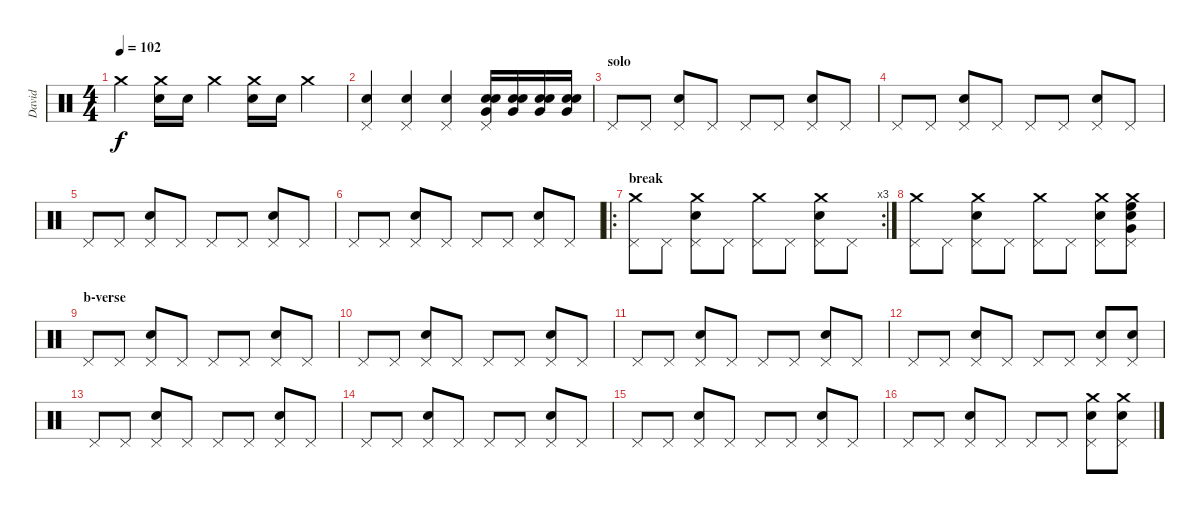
\track ("David" "David") {instrument percussion}
\staff {score}
\articulation defaults
\ts (4 4)
\tempo 102
\clef neutral
\ks c "Crash medium (hit)".4{dy f}
("Crash medium (hit)" "Snare (hit) 2").16 "Snare (hit) 2".16 "Crash medium (hit)".4 ("Crash medium (hit)" "Snare (hit) 2").16 "Snare (hit) 2".16 "Crash medium (hit)".4 |
("Pedal Hi-Hat (hit)" "Snare (hit) 2").4 ("Pedal Hi-Hat (hit)" "Snare (hit) 2").4 ("Pedal Hi-Hat (hit)" "Snare (hit) 2").4 ("Pedal Hi-Hat (hit)" "Electric Snare (hit)" "Very Low Tom (hit)" "Snare (hit) 2").16 ("Electric Snare (hit)" "Very Low Tom (hit)" "Snare (hit) 2").16 ("Electric Snare (hit)" "Very Low Tom (hit)" "Snare (hit) 2").16 ("Electric Snare (hit)" "Very Low Tom (hit)" "Snare (hit) 2").16 |
\section ("" "solo")
"Pedal Hi-Hat (hit)".8 "Pedal Hi-Hat (hit)".8 ("Pedal Hi-Hat (hit)" "Snare (hit) 2").8 "Pedal Hi-Hat (hit)".8 "Pedal Hi-Hat (hit)".8 "Pedal Hi-Hat (hit)".8 ("Pedal Hi-Hat (hit)" "Snare (hit) 2").8 "Pedal Hi-Hat (hit)".8 |
"Pedal Hi-Hat (hit)".8 "Pedal Hi-Hat (hit)".8 ("Pedal Hi-Hat (hit)" "Snare (hit) 2").8 "Pedal Hi-Hat (hit)".8 "Pedal Hi-Hat (hit)".8 "Pedal Hi-Hat (hit)".8 ("Pedal Hi-Hat (hit)" "Snare (hit) 2").8 "Pedal Hi-Hat (hit)".8 |
"Pedal Hi-Hat (hit)".8 "Pedal Hi-Hat (hit)".8 ("Pedal Hi-Hat (hit)" "Snare (hit) 2").8 "Pedal Hi-Hat (hit)".8 "Pedal Hi-Hat (hit)".8 "Pedal Hi-Hat (hit)".8 ("Pedal Hi-Hat (hit)" "Snare (hit) 2").8 "Pedal Hi-Hat (hit)".8 |
"Pedal Hi-Hat (hit)".8 "Pedal Hi-Hat (hit)".8 ("Pedal Hi-Hat (hit)" "Snare (hit) 2").8 "Pedal Hi-Hat (hit)".8 "Pedal Hi-Hat (hit)".8 "Pedal Hi-Hat (hit)".8 ("Pedal Hi-Hat (hit)" "Snare (hit) 2").8 "Pedal Hi-Hat (hit)".8 |
\ro
\rc 3
\section ("" "break")
("Pedal Hi-Hat (hit)" "Crash medium (hit)").8 "Pedal Hi-Hat (hit)".8 ("Pedal Hi-Hat (hit)" "Crash medium (hit)" "Snare (hit) 2").8 "Pedal Hi-Hat (hit)".8 ("Pedal Hi-Hat (hit)" "Crash medium (hit)").8 "Pedal Hi-Hat (hit)".8 ("Pedal Hi-Hat (hit)" "Crash medium (hit)" "Snare (hit) 2").8 "Pedal Hi-Hat (hit)".8 |
("Pedal Hi-Hat (hit)" "Crash medium (hit)").8 "Pedal Hi-Hat (hit)".8 ("Pedal Hi-Hat (hit)" "Crash medium (hit)" "Snare (hit) 2").8 "Pedal Hi-Hat (hit)".8 ("Pedal Hi-Hat (hit)" "Crash medium (hit)").8 "Pedal Hi-Hat (hit)".8 ("Pedal Hi-Hat (hit)" "Crash medium (hit)" "Snare (hit) 2").8 ("Pedal Hi-Hat (hit)" "Crash medium (hit)" "High Floor Tom (hit)" "Very Low Tom (hit)" "Snare (hit) 2").8 |
\section ("" "b-verse")
"Pedal Hi-Hat (hit)".8 "Pedal Hi-Hat (hit)".8 ("Pedal Hi-Hat (hit)" "Snare (hit) 2").8 "Pedal Hi-Hat (hit)".8 "Pedal Hi-Hat (hit)".8 "Pedal Hi-Hat (hit)".8 ("Pedal Hi-Hat (hit)" "Snare (hit) 2").8 "Pedal Hi-Hat (hit)".8 |
"Pedal Hi-Hat (hit)".8 "Pedal Hi-Hat (hit)".8 ("Pedal Hi-Hat (hit)" "Snare (hit) 2").8 "Pedal Hi-Hat (hit)".8 "Pedal Hi-Hat (hit)".8 "Pedal Hi-Hat (hit)".8 ("Pedal Hi-Hat (hit)" "Snare (hit) 2").8 "Pedal Hi-Hat (hit)".8 |
"Pedal Hi-Hat (hit)".8 "Pedal Hi-Hat (hit)".8 ("Pedal Hi-Hat (hit)" "Snare (hit) 2").8 "Pedal Hi-Hat (hit)".8 "Pedal Hi-Hat (hit)".8 "Pedal Hi-Hat (hit)".8 ("Pedal Hi-Hat (hit)" "Snare (hit) 2").8 "Pedal Hi-Hat (hit)".8 |
"Pedal Hi-Hat (hit)".8 "Pedal Hi-Hat (hit)".8 ("Pedal Hi-Hat (hit)" "Snare (hit) 2").8 "Pedal Hi-Hat (hit)".8 "Pedal Hi-Hat (hit)".8 "Pedal Hi-Hat (hit)".8 ("Pedal Hi-Hat (hit)" "Snare (hit) 2").8 ("Pedal Hi-Hat (hit)" "Snare (hit) 2").8 |
"Pedal Hi-Hat (hit)".8 "Pedal Hi-Hat (hit)".8 ("Pedal Hi-Hat (hit)" "Snare (hit) 2").8 "Pedal Hi-Hat (hit)".8 "Pedal Hi-Hat (hit)".8 "Pedal Hi-Hat (hit)".8 ("Pedal Hi-Hat (hit)" "Snare (hit) 2").8 "Pedal Hi-Hat (hit)".8 |
"Pedal Hi-Hat (hit)".8 "Pedal Hi-Hat (hit)".8 ("Pedal Hi-Hat (hit)" "Snare (hit) 2").8 "Pedal Hi-Hat (hit)".8 "Pedal Hi-Hat (hit)".8 "Pedal Hi-Hat (hit)".8 ("Pedal Hi-Hat (hit)" "Snare (hit) 2").8 "Pedal Hi-Hat (hit)".8 |
"Pedal Hi-Hat (hit)".8 "Pedal Hi-Hat (hit)".8 ("Pedal Hi-Hat (hit)" "Snare (hit) 2").8 "Pedal Hi-Hat (hit)".8 "Pedal Hi-Hat (hit)".8 "Pedal Hi-Hat (hit)".8 ("Pedal Hi-Hat (hit)" "Snare (hit) 2").8 "Pedal Hi-Hat (hit)".8 |
"Pedal Hi-Hat (hit)".8 "Pedal Hi-Hat (hit)".8 ("Pedal Hi-Hat (hit)" "Snare (hit) 2").8 "Pedal Hi-Hat (hit)".8 "Pedal Hi-Hat (hit)".8 "Pedal Hi-Hat (hit)".8 ("Pedal Hi-Hat (hit)" "Crash medium (hit)" "Snare (hit) 2").8 ("Pedal Hi-Hat (hit)" "Crash medium (hit)" "Snare (hit) 2").8
